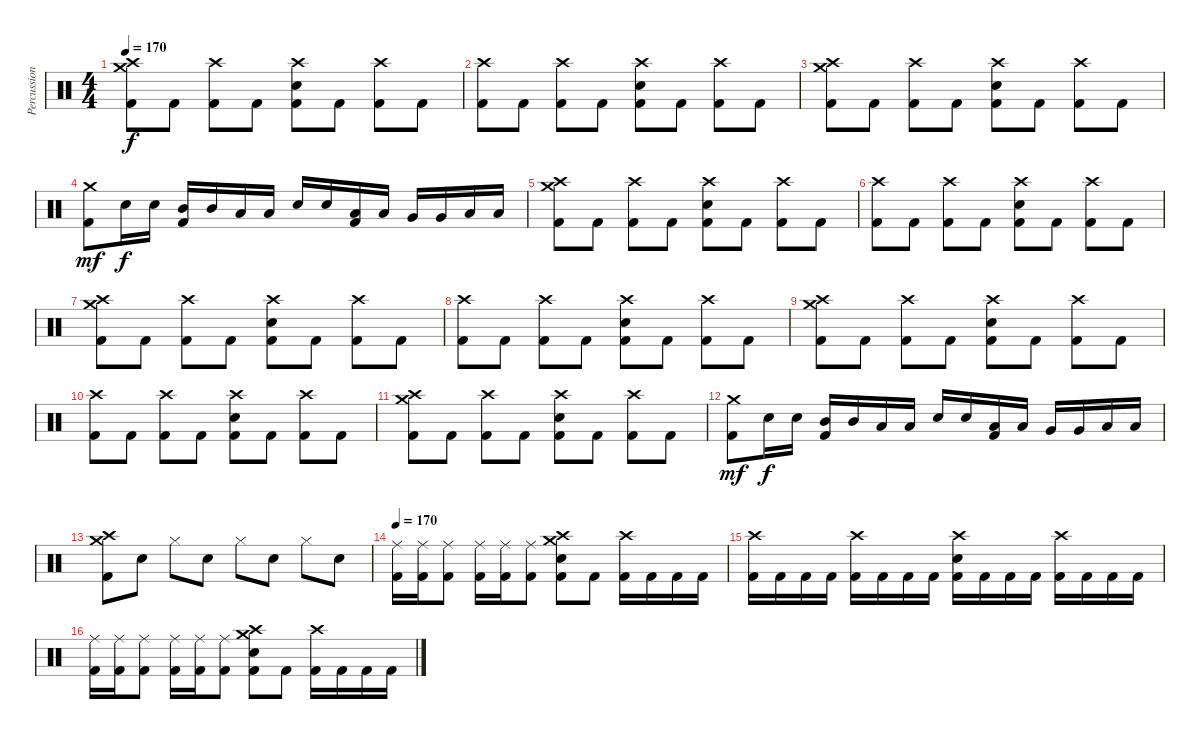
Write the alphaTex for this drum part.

\track ("Percussion" "Percussion") {instrument percussion}
\staff {score}
\articulation defaults
\ts (4 4)
\tempo 170
\clef neutral
\ks c
("Crash medium (hit)" "Crash high (hit)" "Kick (hit) 2").8{dy f} "Kick (hit) 2".8 ("Crash high (hit)" "Kick (hit) 2").8 "Kick (hit) 2".8 ("Crash high (hit)" "Snare (hit) 2" "Kick (hit) 2").8 "Kick (hit) 2".8 ("Crash high (hit)" "Kick (hit) 2").8 "Kick (hit) 2".8 |
("Crash high (hit)" "Kick (hit) 2").8 "Kick (hit) 2".8 ("Crash high (hit)" "Kick (hit) 2").8 "Kick (hit) 2".8 ("Crash high (hit)" "Snare (hit) 2" "Kick (hit) 2").8 "Kick (hit) 2".8 ("Crash high (hit)" "Kick (hit) 2").8 "Kick (hit) 2".8 |
("Crash medium (hit)" "Crash high (hit)" "Kick (hit) 2").8 "Kick (hit) 2".8 ("Crash high (hit)" "Kick (hit) 2").8 "Kick (hit) 2".8 ("Crash high (hit)" "Snare (hit) 2" "Kick (hit) 2").8 "Kick (hit) 2".8 ("Crash high (hit)" "Kick (hit) 2").8 "Kick (hit) 2".8 |
("Kick (hit) 2" "Crash medium (hit)").8{dy mf} "Snare (hit) 2".16{dy f} "Snare (hit) 2".16 ("Kick (hit) 2" "Mid Tom (hit)").16 "Mid Tom (hit)".16 "Low Tom (hit)".16 "Low Tom (hit)".16 "Snare (hit) 2".16 "Snare (hit) 2".16 ("Kick (hit) 2" "Low Tom (hit)").16 "Low Tom (hit)".16 "Very Low Tom (hit)".16 "Very Low Tom (hit)".16 "Low Floor Tom (hit)".16 "Low Floor Tom (hit)".16 |
("Crash medium (hit)" "Crash high (hit)" "Kick (hit) 2").8 "Kick (hit) 2".8 ("Crash high (hit)" "Kick (hit) 2").8 "Kick (hit) 2".8 ("Crash high (hit)" "Snare (hit) 2" "Kick (hit) 2").8 "Kick (hit) 2".8 ("Crash high (hit)" "Kick (hit) 2").8 "Kick (hit) 2".8 |
("Crash high (hit)" "Kick (hit) 2").8 "Kick (hit) 2".8 ("Crash high (hit)" "Kick (hit) 2").8 "Kick (hit) 2".8 ("Crash high (hit)" "Snare (hit) 2" "Kick (hit) 2").8 "Kick (hit) 2".8 ("Crash high (hit)" "Kick (hit) 2").8 "Kick (hit) 2".8 |
("Crash medium (hit)" "Crash high (hit)" "Kick (hit) 2").8 "Kick (hit) 2".8 ("Crash high (hit)" "Kick (hit) 2").8 "Kick (hit) 2".8 ("Crash high (hit)" "Snare (hit) 2" "Kick (hit) 2").8 "Kick (hit) 2".8 ("Crash high (hit)" "Kick (hit) 2").8 "Kick (hit) 2".8 |
("Crash high (hit)" "Kick (hit) 2").8 "Kick (hit) 2".8 ("Crash high (hit)" "Kick (hit) 2").8 "Kick (hit) 2".8 ("Crash high (hit)" "Snare (hit) 2" "Kick (hit) 2").8 "Kick (hit) 2".8 ("Crash high (hit)" "Kick (hit) 2").8 "Kick (hit) 2".8 |
("Crash medium (hit)" "Crash high (hit)" "Kick (hit) 2").8 "Kick (hit) 2".8 ("Crash high (hit)" "Kick (hit) 2").8 "Kick (hit) 2".8 ("Crash high (hit)" "Snare (hit) 2" "Kick (hit) 2").8 "Kick (hit) 2".8 ("Crash high (hit)" "Kick (hit) 2").8 "Kick (hit) 2".8 |
("Crash high (hit)" "Kick (hit) 2").8 "Kick (hit) 2".8 ("Crash high (hit)" "Kick (hit) 2").8 "Kick (hit) 2".8 ("Crash high (hit)" "Snare (hit) 2" "Kick (hit) 2").8 "Kick (hit) 2".8 ("Crash high (hit)" "Kick (hit) 2").8 "Kick (hit) 2".8 |
("Crash medium (hit)" "Crash high (hit)" "Kick (hit) 2").8 "Kick (hit) 2".8 ("Crash high (hit)" "Kick (hit) 2").8 "Kick (hit) 2".8 ("Crash high (hit)" "Snare (hit) 2" "Kick (hit) 2").8 "Kick (hit) 2".8 ("Crash high (hit)" "Kick (hit) 2").8 "Kick (hit) 2".8 |
("Kick (hit) 2" "Crash medium (hit)").8{dy mf} "Snare (hit) 2".16{dy f} "Snare (hit) 2".16 ("Kick (hit) 2" "Mid Tom (hit)").16 "Mid Tom (hit)".16 "Low Tom (hit)".16 "Low Tom (hit)".16 "Snare (hit) 2".16 "Snare (hit) 2".16 ("Kick (hit) 2" "Low Tom (hit)").16 "Low Tom (hit)".16 "Very Low Tom (hit)".16 "Very Low Tom (hit)".16 "Low Floor Tom (hit)".16 "Low Floor Tom (hit)".16 |
("Crash high (hit)" "Crash medium (hit)" "Kick (hit) 2").8 "Snare (hit)".8 "Hi-Hat (closed)".8 "Snare (hit)".8 "Hi-Hat (closed)".8 "Snare (hit)".8 "Hi-Hat (closed)".8 "Snare (hit)".8 |
\tempo 170
("Ride (middle)" "Kick (hit) 2").16 ("Ride (middle)" "Kick (hit) 2").16 ("Ride (middle)" "Kick (hit) 2").8 ("Ride (middle)" "Kick (hit) 2").16 ("Ride (middle)" "Kick (hit) 2").16 ("Ride (middle)" "Kick (hit) 2").8 ("Crash medium (hit)" "Crash high (hit)" "Snare (hit) 2" "Kick (hit) 2").8 "Kick (hit) 2".8 ("Crash high (hit)" "Kick (hit) 2").16 "Kick (hit) 2".16 "Kick (hit) 2".16 "Kick (hit) 2".16 |
("Crash high (hit)" "Kick (hit) 2").16 "Kick (hit) 2".16 "Kick (hit) 2".16 "Kick (hit) 2".16 ("Crash high (hit)" "Kick (hit) 2").16 "Kick (hit) 2".16 "Kick (hit) 2".16 "Kick (hit) 2".16 ("Crash high (hit)" "Snare (hit) 2" "Kick (hit) 2").16 "Kick (hit) 2".16 "Kick (hit) 2".16 "Kick (hit) 2".16 ("Crash high (hit)" "Kick (hit) 2").16 "Kick (hit) 2".16 "Kick (hit) 2".16 "Kick (hit) 2".16 |
("Ride (middle)" "Kick (hit) 2").16 ("Ride (middle)" "Kick (hit) 2").16 ("Ride (middle)" "Kick (hit) 2").8 ("Ride (middle)" "Kick (hit) 2").16 ("Ride (middle)" "Kick (hit) 2").16 ("Ride (middle)" "Kick (hit) 2").8 ("Crash medium (hit)" "Crash high (hit)" "Snare (hit) 2" "Kick (hit) 2").8 "Kick (hit) 2".8 ("Crash high (hit)" "Kick (hit) 2").16 "Kick (hit) 2".16 "Kick (hit) 2".16 "Kick (hit) 2".16
